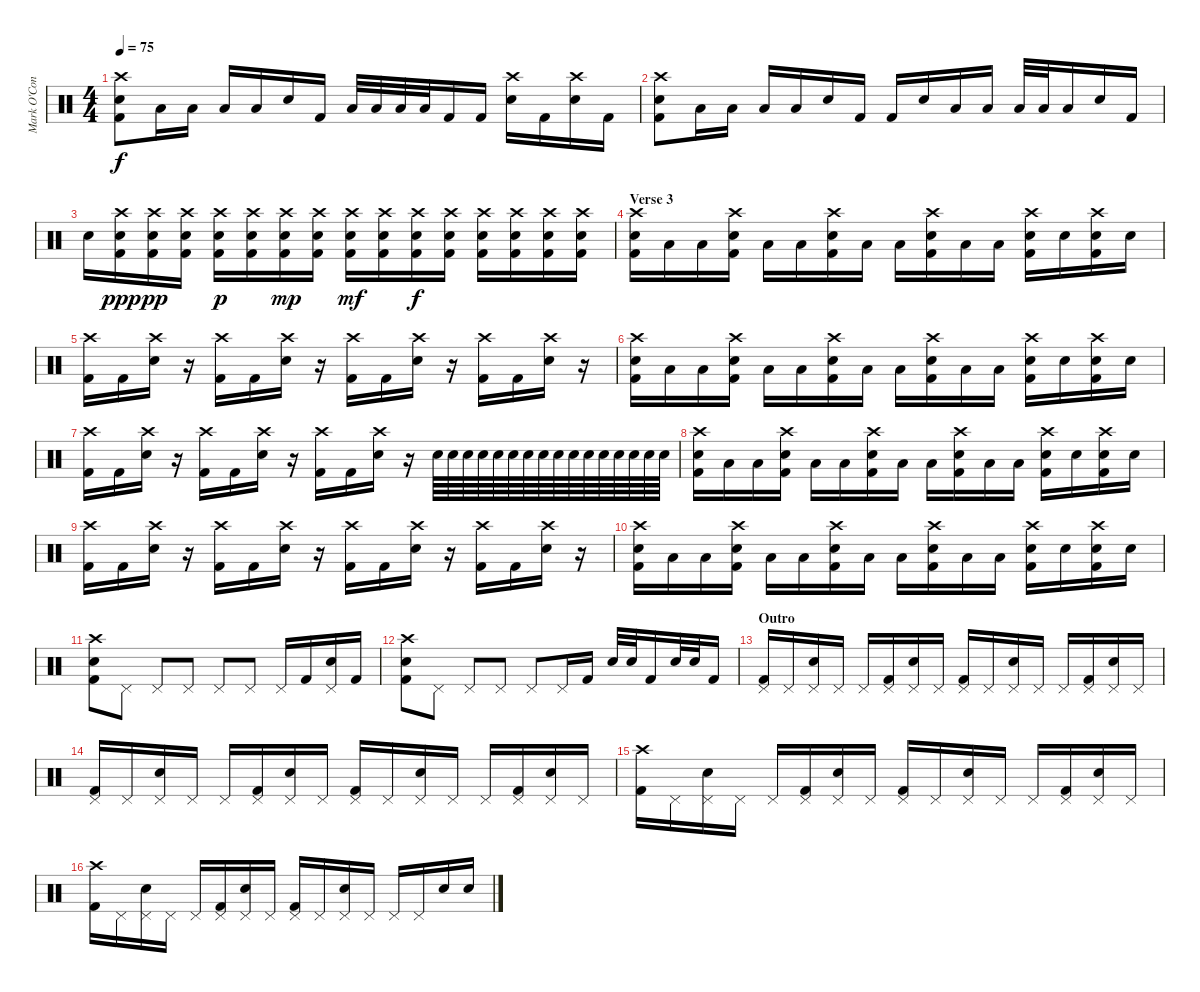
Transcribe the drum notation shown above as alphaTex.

\track ("Mark O'Connell (Drums)" "Mark O'Con") {instrument percussion}
\staff {score}
\articulation defaults
\ts (4 4)
\tempo 75
\clef neutral
\ks c
("Crash high (hit)" "Electric Snare (hit)" "Kick (hit) 2").8{dy f} "Low Tom (hit)".16 "Low Tom (hit)".16 "Low Tom (hit)".16 "Low Tom (hit)".16 "Electric Snare (hit)".16 "Kick (hit) 2".16 "Low Tom (hit)".32 "Low Tom (hit)".32 "Low Tom (hit)".32 "Low Tom (hit)".32 "Kick (hit) 2".16 "Kick (hit) 2".16 ("Crash high (hit)" "Electric Snare (hit)").16 "Kick (hit) 2".16 ("Crash high (hit)" "Electric Snare (hit)").16 "Kick (hit) 2".16 |
("Crash high (hit)" "Electric Snare (hit)" "Kick (hit) 2").8 "Low Tom (hit)".16 "Low Tom (hit)".16 "Low Tom (hit)".16 "Low Tom (hit)".16 "Electric Snare (hit)".16 "Kick (hit) 2".16 "Kick (hit) 2".16 "Electric Snare (hit)".16 "Low Tom (hit)".16 "Low Tom (hit)".16 "Low Tom (hit)".32 "Low Tom (hit)".32 "Low Tom (hit)".16 "Electric Snare (hit)".16 "Kick (hit) 2".16 |
"Electric Snare (hit)".16 ("Crash high (hit)" "Electric Snare (hit)" "Kick (hit) 2").16{dy ppp} ("Crash high (hit)" "Electric Snare (hit)" "Kick (hit) 2").16{dy pp} ("Crash high (hit)" "Electric Snare (hit)" "Kick (hit) 2").16 ("Crash high (hit)" "Electric Snare (hit)" "Kick (hit) 2").16{dy p} ("Crash high (hit)" "Electric Snare (hit)" "Kick (hit) 2").16 ("Crash high (hit)" "Electric Snare (hit)" "Kick (hit) 2").16{dy mp} ("Crash high (hit)" "Electric Snare (hit)" "Kick (hit) 2").16 ("Crash high (hit)" "Electric Snare (hit)" "Kick (hit) 2").16{dy mf} ("Crash high (hit)" "Electric Snare (hit)" "Kick (hit) 2").16 ("Crash high (hit)" "Electric Snare (hit)" "Kick (hit) 2").16{dy f} ("Crash high (hit)" "Electric Snare (hit)" "Kick (hit) 2").16 ("Crash high (hit)" "Electric Snare (hit)" "Kick (hit) 2").16 ("Crash high (hit)" "Electric Snare (hit)" "Kick (hit) 2").16 ("Crash high (hit)" "Electric Snare (hit)" "Kick (hit) 2").16 ("Crash high (hit)" "Electric Snare (hit)" "Kick (hit) 2").16 |
\section ("" "Verse 3")
("Crash high (hit)" "Electric Snare (hit)" "Kick (hit) 2").16 "Low Tom (hit)".16 "Low Tom (hit)".16 ("Crash high (hit)" "Electric Snare (hit)" "Kick (hit) 2").16 "Low Tom (hit)".16 "Low Tom (hit)".16 ("Crash high (hit)" "Electric Snare (hit)" "Kick (hit) 2").16 "Low Tom (hit)".16 "Low Tom (hit)".16 ("Crash high (hit)" "Electric Snare (hit)" "Kick (hit) 2").16 "Low Tom (hit)".16 "Low Tom (hit)".16 ("Crash high (hit)" "Electric Snare (hit)" "Kick (hit) 2").16 "Electric Snare (hit)".16 ("Crash high (hit)" "Electric Snare (hit)" "Kick (hit) 2").16 "Electric Snare (hit)".16 |
("Crash high (hit)" "Kick (hit) 2").16 "Kick (hit) 2".16 ("Crash high (hit)" "Electric Snare (hit)").16 r.16 ("Crash high (hit)" "Kick (hit) 2").16 "Kick (hit) 2".16 ("Crash high (hit)" "Electric Snare (hit)").16 r.16 ("Crash high (hit)" "Kick (hit) 2").16 "Kick (hit) 2".16 ("Crash high (hit)" "Electric Snare (hit)").16 r.16 ("Crash high (hit)" "Kick (hit) 2").16 "Kick (hit) 2".16 ("Crash high (hit)" "Electric Snare (hit)").16 r.16 |
("Crash high (hit)" "Electric Snare (hit)" "Kick (hit) 2").16 "Low Tom (hit)".16 "Low Tom (hit)".16 ("Crash high (hit)" "Electric Snare (hit)" "Kick (hit) 2").16 "Low Tom (hit)".16 "Low Tom (hit)".16 ("Crash high (hit)" "Electric Snare (hit)" "Kick (hit) 2").16 "Low Tom (hit)".16 "Low Tom (hit)".16 ("Crash high (hit)" "Electric Snare (hit)" "Kick (hit) 2").16 "Low Tom (hit)".16 "Low Tom (hit)".16 ("Crash high (hit)" "Electric Snare (hit)" "Kick (hit) 2").16 "Electric Snare (hit)".16 ("Crash high (hit)" "Electric Snare (hit)" "Kick (hit) 2").16 "Electric Snare (hit)".16 |
("Crash high (hit)" "Kick (hit) 2").16 "Kick (hit) 2".16 ("Crash high (hit)" "Electric Snare (hit)").16 r.16 ("Crash high (hit)" "Kick (hit) 2").16 "Kick (hit) 2".16 ("Crash high (hit)" "Electric Snare (hit)").16 r.16 ("Crash high (hit)" "Kick (hit) 2").16 "Kick (hit) 2".16 ("Crash high (hit)" "Electric Snare (hit)").16 r.16 "Electric Snare (hit)".64 "Electric Snare (hit)".64 "Electric Snare (hit)".64 "Electric Snare (hit)".64 "Electric Snare (hit)".64 "Electric Snare (hit)".64 "Electric Snare (hit)".64 "Electric Snare (hit)".64 "Electric Snare (hit)".64 "Electric Snare (hit)".64 "Electric Snare (hit)".64 "Electric Snare (hit)".64 "Electric Snare (hit)".64 "Electric Snare (hit)".64 "Electric Snare (hit)".64 "Electric Snare (hit)".64 |
("Crash high (hit)" "Electric Snare (hit)" "Kick (hit) 2").16 "Low Tom (hit)".16 "Low Tom (hit)".16 ("Crash high (hit)" "Electric Snare (hit)" "Kick (hit) 2").16 "Low Tom (hit)".16 "Low Tom (hit)".16 ("Crash high (hit)" "Electric Snare (hit)" "Kick (hit) 2").16 "Low Tom (hit)".16 "Low Tom (hit)".16 ("Crash high (hit)" "Electric Snare (hit)" "Kick (hit) 2").16 "Low Tom (hit)".16 "Low Tom (hit)".16 ("Crash high (hit)" "Electric Snare (hit)" "Kick (hit) 2").16 "Electric Snare (hit)".16 ("Crash high (hit)" "Electric Snare (hit)" "Kick (hit) 2").16 "Electric Snare (hit)".16 |
("Crash high (hit)" "Kick (hit) 2").16 "Kick (hit) 2".16 ("Crash high (hit)" "Electric Snare (hit)").16 r.16 ("Crash high (hit)" "Kick (hit) 2").16 "Kick (hit) 2".16 ("Crash high (hit)" "Electric Snare (hit)").16 r.16 ("Crash high (hit)" "Kick (hit) 2").16 "Kick (hit) 2".16 ("Crash high (hit)" "Electric Snare (hit)").16 r.16 ("Crash high (hit)" "Kick (hit) 2").16 "Kick (hit) 2".16 ("Crash high (hit)" "Electric Snare (hit)").16 r.16 |
("Crash high (hit)" "Electric Snare (hit)" "Kick (hit) 2").16 "Low Tom (hit)".16 "Low Tom (hit)".16 ("Crash high (hit)" "Electric Snare (hit)" "Kick (hit) 2").16 "Low Tom (hit)".16 "Low Tom (hit)".16 ("Crash high (hit)" "Electric Snare (hit)" "Kick (hit) 2").16 "Low Tom (hit)".16 "Low Tom (hit)".16 ("Crash high (hit)" "Electric Snare (hit)" "Kick (hit) 2").16 "Low Tom (hit)".16 "Low Tom (hit)".16 ("Crash high (hit)" "Electric Snare (hit)" "Kick (hit) 2").16 "Electric Snare (hit)".16 ("Crash high (hit)" "Electric Snare (hit)" "Kick (hit) 2").16 "Electric Snare (hit)".16 |
("Crash high (hit)" "Electric Snare (hit)" "Kick (hit) 2").8 "Pedal Hi-Hat (hit)".8 "Pedal Hi-Hat (hit)".8 "Pedal Hi-Hat (hit)".8 "Pedal Hi-Hat (hit)".8 "Pedal Hi-Hat (hit)".8 "Pedal Hi-Hat (hit)".16 "Kick (hit) 2".16 ("Pedal Hi-Hat (hit)" "Electric Snare (hit)").16 "Kick (hit) 2".16 |
("Crash high (hit)" "Electric Snare (hit)" "Kick (hit) 2").8 "Pedal Hi-Hat (hit)".8 "Pedal Hi-Hat (hit)".8 "Pedal Hi-Hat (hit)".8 "Pedal Hi-Hat (hit)".8 "Pedal Hi-Hat (hit)".16 "Kick (hit) 2".16 "Electric Snare (hit)".32 "Electric Snare (hit)".32 "Kick (hit) 2".16 "Electric Snare (hit)".32 "Electric Snare (hit)".32 "Kick (hit) 2".16 |
\section ("" "Outro")
("Pedal Hi-Hat (hit)" "Kick (hit) 2").16 "Pedal Hi-Hat (hit)".16 ("Pedal Hi-Hat (hit)" "Electric Snare (hit)").16 "Pedal Hi-Hat (hit)".16 "Pedal Hi-Hat (hit)".16 ("Pedal Hi-Hat (hit)" "Kick (hit) 2").16 ("Pedal Hi-Hat (hit)" "Electric Snare (hit)").16 "Pedal Hi-Hat (hit)".16 ("Pedal Hi-Hat (hit)" "Kick (hit) 2").16 "Pedal Hi-Hat (hit)".16 ("Pedal Hi-Hat (hit)" "Electric Snare (hit)").16 "Pedal Hi-Hat (hit)".16 "Pedal Hi-Hat (hit)".16 ("Pedal Hi-Hat (hit)" "Kick (hit) 2").16 ("Pedal Hi-Hat (hit)" "Electric Snare (hit)").16 "Pedal Hi-Hat (hit)".16 |
("Pedal Hi-Hat (hit)" "Kick (hit) 2").16 "Pedal Hi-Hat (hit)".16 ("Pedal Hi-Hat (hit)" "Electric Snare (hit)").16 "Pedal Hi-Hat (hit)".16 "Pedal Hi-Hat (hit)".16 ("Pedal Hi-Hat (hit)" "Kick (hit) 2").16 ("Pedal Hi-Hat (hit)" "Electric Snare (hit)").16 "Pedal Hi-Hat (hit)".16 ("Pedal Hi-Hat (hit)" "Kick (hit) 2").16 "Pedal Hi-Hat (hit)".16 ("Pedal Hi-Hat (hit)" "Electric Snare (hit)").16 "Pedal Hi-Hat (hit)".16 "Pedal Hi-Hat (hit)".16 ("Pedal Hi-Hat (hit)" "Kick (hit) 2").16 ("Pedal Hi-Hat (hit)" "Electric Snare (hit)").16 "Pedal Hi-Hat (hit)".16 |
("Crash high (hit)" "Kick (hit) 2").16 "Pedal Hi-Hat (hit)".16 ("Pedal Hi-Hat (hit)" "Electric Snare (hit)").16 "Pedal Hi-Hat (hit)".16 "Pedal Hi-Hat (hit)".16 ("Pedal Hi-Hat (hit)" "Kick (hit) 2").16 ("Pedal Hi-Hat (hit)" "Electric Snare (hit)").16 "Pedal Hi-Hat (hit)".16 ("Pedal Hi-Hat (hit)" "Kick (hit) 2").16 "Pedal Hi-Hat (hit)".16 ("Pedal Hi-Hat (hit)" "Electric Snare (hit)").16 "Pedal Hi-Hat (hit)".16 "Pedal Hi-Hat (hit)".16 ("Pedal Hi-Hat (hit)" "Kick (hit) 2").16 ("Pedal Hi-Hat (hit)" "Electric Snare (hit)").16 "Pedal Hi-Hat (hit)".16 |
("Crash high (hit)" "Kick (hit) 2").16 "Pedal Hi-Hat (hit)".16 ("Pedal Hi-Hat (hit)" "Electric Snare (hit)").16 "Pedal Hi-Hat (hit)".16 "Pedal Hi-Hat (hit)".16 ("Pedal Hi-Hat (hit)" "Kick (hit) 2").16 ("Pedal Hi-Hat (hit)" "Electric Snare (hit)").16 "Pedal Hi-Hat (hit)".16 ("Pedal Hi-Hat (hit)" "Kick (hit) 2").16 "Pedal Hi-Hat (hit)".16 ("Pedal Hi-Hat (hit)" "Electric Snare (hit)").16 "Pedal Hi-Hat (hit)".16 "Pedal Hi-Hat (hit)".16 "Pedal Hi-Hat (hit)".16 "Electric Snare (hit)".16 "Electric Snare (hit)".16
